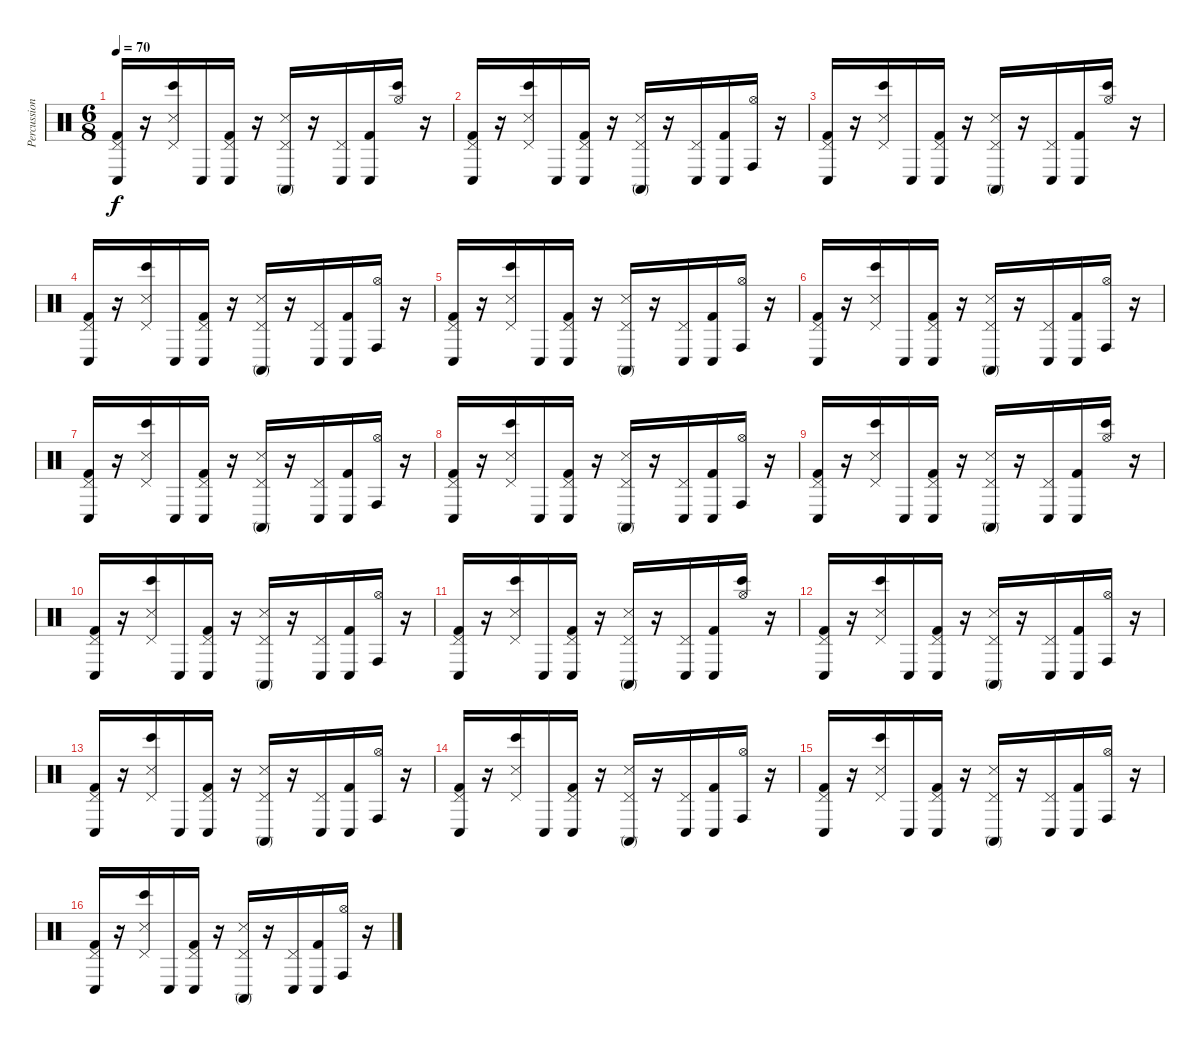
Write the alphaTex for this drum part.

\track ("Percussion" "Percussion") {instrument percussion}
\staff {score}
\articulation defaults
\ts (6 8)
\tempo 70
\clef neutral
\ks c
("Pedal Hi-Hat (hit)" "Conga low (hit)" "Kick (hit) 2").16{dy f} r.16 ("Pedal Hi-Hat (hit)" "Bongo High (hit)" "Snare (side stick) 3").16 "Conga low (hit)".16 ("Pedal Hi-Hat (hit)" "Conga low (hit)" "Kick (hit) 2").16 r.16 ("Pedal Hi-Hat (hit)" "Conga high (mute)" "Snare (side stick) 3").16 r.16 ("Pedal Hi-Hat (hit)" "Conga low (hit)").16 ("Conga low (hit)" "Kick (hit) 2").16 ("Hi-Hat (open)" "Bongo High (hit)").16 r.16 |
("Pedal Hi-Hat (hit)" "Conga low (hit)" "Kick (hit) 2").16 r.16 ("Pedal Hi-Hat (hit)" "Bongo High (hit)" "Snare (side stick) 3").16 "Conga low (hit)".16 ("Pedal Hi-Hat (hit)" "Conga low (hit)" "Kick (hit) 2").16 r.16 ("Pedal Hi-Hat (hit)" "Conga high (mute)" "Snare (side stick) 3").16 r.16 ("Pedal Hi-Hat (hit)" "Conga low (hit)").16 ("Conga low (hit)" "Kick (hit) 2").16 ("Hi-Hat (open)" "Conga high (hit)").16 r.16 |
("Pedal Hi-Hat (hit)" "Conga low (hit)" "Kick (hit) 2").16 r.16 ("Pedal Hi-Hat (hit)" "Bongo High (hit)" "Snare (side stick) 3").16 "Conga low (hit)".16 ("Pedal Hi-Hat (hit)" "Conga low (hit)" "Kick (hit) 2").16 r.16 ("Pedal Hi-Hat (hit)" "Conga high (mute)" "Snare (side stick) 3").16 r.16 ("Pedal Hi-Hat (hit)" "Conga low (hit)").16 ("Conga low (hit)" "Kick (hit) 2").16 ("Hi-Hat (open)" "Bongo High (hit)").16 r.16 |
("Pedal Hi-Hat (hit)" "Conga low (hit)" "Kick (hit) 2").16 r.16 ("Pedal Hi-Hat (hit)" "Bongo High (hit)" "Snare (side stick) 3").16 "Conga low (hit)".16 ("Pedal Hi-Hat (hit)" "Conga low (hit)" "Kick (hit) 2").16 r.16 ("Pedal Hi-Hat (hit)" "Conga high (mute)" "Snare (side stick) 3").16 r.16 ("Pedal Hi-Hat (hit)" "Conga low (hit)").16 ("Conga low (hit)" "Kick (hit) 2").16 ("Hi-Hat (open)" "Conga high (hit)").16 r.16 |
("Pedal Hi-Hat (hit)" "Conga low (hit)" "Kick (hit) 2").16 r.16 ("Pedal Hi-Hat (hit)" "Bongo High (hit)" "Snare (side stick) 3").16 "Conga low (hit)".16 ("Pedal Hi-Hat (hit)" "Conga low (hit)" "Kick (hit) 2").16 r.16 ("Pedal Hi-Hat (hit)" "Conga high (mute)" "Snare (side stick) 3").16 r.16 ("Pedal Hi-Hat (hit)" "Conga low (hit)").16 ("Conga low (hit)" "Kick (hit) 2").16 ("Hi-Hat (open)" "Conga high (hit)").16 r.16 |
("Pedal Hi-Hat (hit)" "Conga low (hit)" "Kick (hit) 2").16 r.16 ("Pedal Hi-Hat (hit)" "Bongo High (hit)" "Snare (side stick) 3").16 "Conga low (hit)".16 ("Pedal Hi-Hat (hit)" "Conga low (hit)" "Kick (hit) 2").16 r.16 ("Pedal Hi-Hat (hit)" "Conga high (mute)" "Snare (side stick) 3").16 r.16 ("Pedal Hi-Hat (hit)" "Conga low (hit)").16 ("Conga low (hit)" "Kick (hit) 2").16 ("Hi-Hat (open)" "Conga high (hit)").16 r.16 |
("Pedal Hi-Hat (hit)" "Conga low (hit)" "Kick (hit) 2").16 r.16 ("Pedal Hi-Hat (hit)" "Bongo High (hit)" "Snare (side stick) 3").16 "Conga low (hit)".16 ("Pedal Hi-Hat (hit)" "Conga low (hit)" "Kick (hit) 2").16 r.16 ("Pedal Hi-Hat (hit)" "Conga high (mute)" "Snare (side stick) 3").16 r.16 ("Pedal Hi-Hat (hit)" "Conga low (hit)").16 ("Conga low (hit)" "Kick (hit) 2").16 ("Hi-Hat (open)" "Conga high (hit)").16 r.16 |
("Pedal Hi-Hat (hit)" "Conga low (hit)" "Kick (hit) 2").16 r.16 ("Pedal Hi-Hat (hit)" "Bongo High (hit)" "Snare (side stick) 3").16 "Conga low (hit)".16 ("Pedal Hi-Hat (hit)" "Conga low (hit)" "Kick (hit) 2").16 r.16 ("Pedal Hi-Hat (hit)" "Conga high (mute)" "Snare (side stick) 3").16 r.16 ("Pedal Hi-Hat (hit)" "Conga low (hit)").16 ("Conga low (hit)" "Kick (hit) 2").16 ("Hi-Hat (open)" "Conga high (hit)").16 r.16 |
("Pedal Hi-Hat (hit)" "Conga low (hit)" "Kick (hit) 2").16 r.16 ("Pedal Hi-Hat (hit)" "Bongo High (hit)" "Snare (side stick) 3").16 "Conga low (hit)".16 ("Pedal Hi-Hat (hit)" "Conga low (hit)" "Kick (hit) 2").16 r.16 ("Pedal Hi-Hat (hit)" "Conga high (mute)" "Snare (side stick) 3").16 r.16 ("Pedal Hi-Hat (hit)" "Conga low (hit)").16 ("Conga low (hit)" "Kick (hit) 2").16 ("Hi-Hat (open)" "Bongo High (hit)").16 r.16 |
("Pedal Hi-Hat (hit)" "Conga low (hit)" "Kick (hit) 2").16 r.16 ("Pedal Hi-Hat (hit)" "Bongo High (hit)" "Snare (side stick) 3").16 "Conga low (hit)".16 ("Pedal Hi-Hat (hit)" "Conga low (hit)" "Kick (hit) 2").16 r.16 ("Pedal Hi-Hat (hit)" "Conga high (mute)" "Snare (side stick) 3").16 r.16 ("Pedal Hi-Hat (hit)" "Conga low (hit)").16 ("Conga low (hit)" "Kick (hit) 2").16 ("Hi-Hat (open)" "Conga high (hit)").16 r.16 |
("Pedal Hi-Hat (hit)" "Conga low (hit)" "Kick (hit) 2").16 r.16 ("Pedal Hi-Hat (hit)" "Bongo High (hit)" "Snare (side stick) 3").16 "Conga low (hit)".16 ("Pedal Hi-Hat (hit)" "Conga low (hit)" "Kick (hit) 2").16 r.16 ("Pedal Hi-Hat (hit)" "Conga high (mute)" "Snare (side stick) 3").16 r.16 ("Pedal Hi-Hat (hit)" "Conga low (hit)").16 ("Conga low (hit)" "Kick (hit) 2").16 ("Hi-Hat (open)" "Bongo High (hit)").16 r.16 |
("Pedal Hi-Hat (hit)" "Conga low (hit)" "Kick (hit) 2").16 r.16 ("Pedal Hi-Hat (hit)" "Bongo High (hit)" "Snare (side stick) 3").16 "Conga low (hit)".16 ("Pedal Hi-Hat (hit)" "Conga low (hit)" "Kick (hit) 2").16 r.16 ("Pedal Hi-Hat (hit)" "Conga high (mute)" "Snare (side stick) 3").16 r.16 ("Pedal Hi-Hat (hit)" "Conga low (hit)").16 ("Conga low (hit)" "Kick (hit) 2").16 ("Hi-Hat (open)" "Conga high (hit)").16 r.16 |
("Pedal Hi-Hat (hit)" "Conga low (hit)" "Kick (hit) 2").16 r.16 ("Pedal Hi-Hat (hit)" "Bongo High (hit)" "Snare (side stick) 3").16 "Conga low (hit)".16 ("Pedal Hi-Hat (hit)" "Conga low (hit)" "Kick (hit) 2").16 r.16 ("Pedal Hi-Hat (hit)" "Conga high (mute)" "Snare (side stick) 3").16 r.16 ("Pedal Hi-Hat (hit)" "Conga low (hit)").16 ("Conga low (hit)" "Kick (hit) 2").16 ("Hi-Hat (open)" "Conga high (hit)").16 r.16 |
("Pedal Hi-Hat (hit)" "Conga low (hit)" "Kick (hit) 2").16 r.16 ("Pedal Hi-Hat (hit)" "Bongo High (hit)" "Snare (side stick) 3").16 "Conga low (hit)".16 ("Pedal Hi-Hat (hit)" "Conga low (hit)" "Kick (hit) 2").16 r.16 ("Pedal Hi-Hat (hit)" "Conga high (mute)" "Snare (side stick) 3").16 r.16 ("Pedal Hi-Hat (hit)" "Conga low (hit)").16 ("Conga low (hit)" "Kick (hit) 2").16 ("Hi-Hat (open)" "Conga high (hit)").16 r.16 |
("Pedal Hi-Hat (hit)" "Conga low (hit)" "Kick (hit) 2").16 r.16 ("Pedal Hi-Hat (hit)" "Bongo High (hit)" "Snare (side stick) 3").16 "Conga low (hit)".16 ("Pedal Hi-Hat (hit)" "Conga low (hit)" "Kick (hit) 2").16 r.16 ("Pedal Hi-Hat (hit)" "Conga high (mute)" "Snare (side stick) 3").16 r.16 ("Pedal Hi-Hat (hit)" "Conga low (hit)").16 ("Conga low (hit)" "Kick (hit) 2").16 ("Hi-Hat (open)" "Conga high (hit)").16 r.16 |
("Pedal Hi-Hat (hit)" "Conga low (hit)" "Kick (hit) 2").16 r.16 ("Pedal Hi-Hat (hit)" "Bongo High (hit)" "Snare (side stick) 3").16 "Conga low (hit)".16 ("Pedal Hi-Hat (hit)" "Conga low (hit)" "Kick (hit) 2").16 r.16 ("Pedal Hi-Hat (hit)" "Conga high (mute)" "Snare (side stick) 3").16 r.16 ("Pedal Hi-Hat (hit)" "Conga low (hit)").16 ("Conga low (hit)" "Kick (hit) 2").16 ("Hi-Hat (open)" "Conga high (hit)").16 r.16
